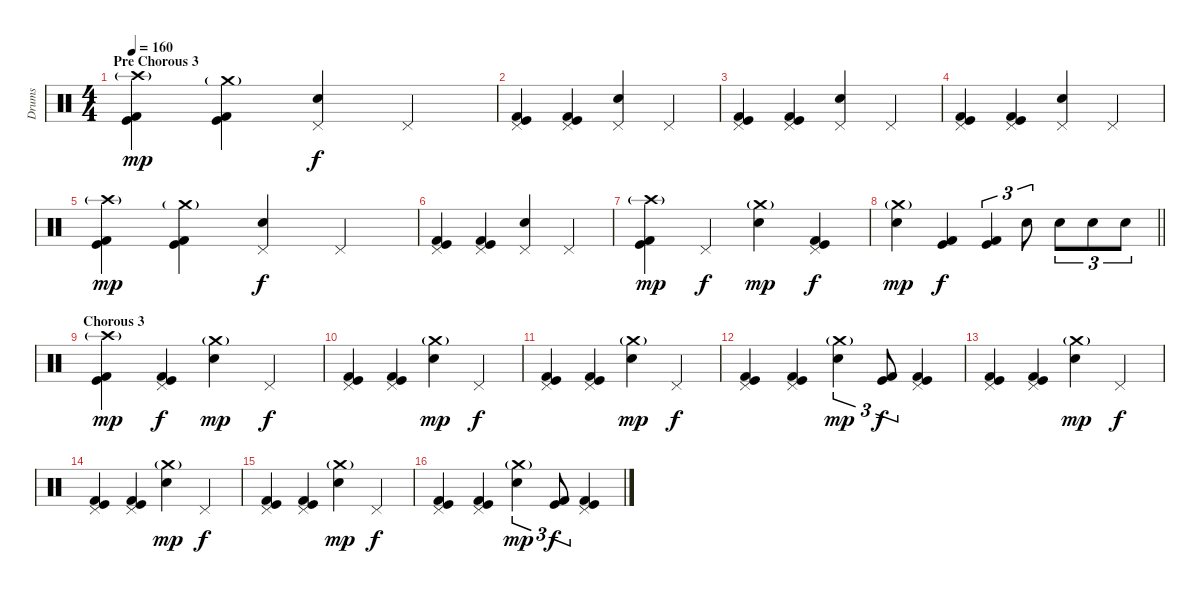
\track ("Drums" "Drums") {instrument percussion}
\staff {score}
\articulation defaults
\ts (4 4)
\section ("" "Pre Chorous 3")
\tempo 160
\clef neutral
\ks c
("Crash high (hit)"{g} "Kick (hit)" "Kick (hit) 2").4{dy mp} ("Crash medium (hit)"{g} "Kick (hit)" "Kick (hit) 2").4 ("Pedal Hi-Hat (hit)" "Electric Snare (hit)").4{dy f} "Pedal Hi-Hat (hit)".4 |
("Pedal Hi-Hat (hit)" "Kick (hit)" "Kick (hit) 2").4 ("Pedal Hi-Hat (hit)" "Kick (hit)" "Kick (hit) 2").4 ("Pedal Hi-Hat (hit)" "Electric Snare (hit)").4 "Pedal Hi-Hat (hit)".4 |
("Pedal Hi-Hat (hit)" "Kick (hit)" "Kick (hit) 2").4 ("Pedal Hi-Hat (hit)" "Kick (hit)" "Kick (hit) 2").4 ("Pedal Hi-Hat (hit)" "Electric Snare (hit)").4 "Pedal Hi-Hat (hit)".4 |
("Pedal Hi-Hat (hit)" "Kick (hit)" "Kick (hit) 2").4 ("Pedal Hi-Hat (hit)" "Kick (hit)" "Kick (hit) 2").4 ("Pedal Hi-Hat (hit)" "Electric Snare (hit)").4 "Pedal Hi-Hat (hit)".4 |
("Crash high (hit)"{g} "Kick (hit)" "Kick (hit) 2").4{dy mp} ("Crash medium (hit)"{g} "Kick (hit)" "Kick (hit) 2").4 ("Pedal Hi-Hat (hit)" "Electric Snare (hit)").4{dy f} "Pedal Hi-Hat (hit)".4 |
("Pedal Hi-Hat (hit)" "Kick (hit)" "Kick (hit) 2").4 ("Pedal Hi-Hat (hit)" "Kick (hit)" "Kick (hit) 2").4 ("Pedal Hi-Hat (hit)" "Electric Snare (hit)").4 "Pedal Hi-Hat (hit)".4 |
("Crash high (hit)"{g} "Kick (hit)" "Kick (hit) 2").4{dy mp} "Pedal Hi-Hat (hit)".4{dy f} ("Crash medium (hit)"{g} "Electric Snare (hit)").4{dy mp} ("Pedal Hi-Hat (hit)" "Kick (hit)" "Kick (hit) 2").4{dy f} |
\barLineRight lightlight
("Crash medium (hit)"{g} "Electric Snare (hit)").4{dy mp} ("Kick (hit)" "Kick (hit) 2").4{dy f} ("Kick (hit)" "Kick (hit) 2").4{tu (3 2)} "Electric Snare (hit)".8{tu (3 2)} "Electric Snare (hit)".8{tu (3 2)} "Electric Snare (hit)".8{tu (3 2)} "Electric Snare (hit)".8{tu (3 2)} |
\section ("" "Chorous 3")
("Crash high (hit)"{g} "Kick (hit)" "Kick (hit) 2").4{dy mp} ("Pedal Hi-Hat (hit)" "Kick (hit)" "Kick (hit) 2").4{dy f} ("Crash medium (hit)"{g} "Electric Snare (hit)").4{dy mp} "Pedal Hi-Hat (hit)".4{dy f} |
("Pedal Hi-Hat (hit)" "Kick (hit)" "Kick (hit) 2").4 ("Pedal Hi-Hat (hit)" "Kick (hit)" "Kick (hit) 2").4 ("Crash medium (hit)"{g} "Electric Snare (hit)").4{dy mp} "Pedal Hi-Hat (hit)".4{dy f} |
("Pedal Hi-Hat (hit)" "Kick (hit)" "Kick (hit) 2").4 ("Pedal Hi-Hat (hit)" "Kick (hit)" "Kick (hit) 2").4 ("Crash medium (hit)"{g} "Electric Snare (hit)").4{dy mp} "Pedal Hi-Hat (hit)".4{dy f} |
("Pedal Hi-Hat (hit)" "Kick (hit)" "Kick (hit) 2").4 ("Pedal Hi-Hat (hit)" "Kick (hit)" "Kick (hit) 2").4 ("Crash medium (hit)"{g} "Electric Snare (hit)").4{tu (3 2) dy mp} ("Kick (hit)" "Kick (hit) 2").8{tu (3 2) dy f} ("Pedal Hi-Hat (hit)" "Kick (hit)" "Kick (hit) 2").4 |
("Pedal Hi-Hat (hit)" "Kick (hit)" "Kick (hit) 2").4 ("Pedal Hi-Hat (hit)" "Kick (hit)" "Kick (hit) 2").4 ("Crash medium (hit)"{g} "Electric Snare (hit)").4{dy mp} "Pedal Hi-Hat (hit)".4{dy f} |
("Pedal Hi-Hat (hit)" "Kick (hit)" "Kick (hit) 2").4 ("Pedal Hi-Hat (hit)" "Kick (hit)" "Kick (hit) 2").4 ("Crash medium (hit)"{g} "Electric Snare (hit)").4{dy mp} "Pedal Hi-Hat (hit)".4{dy f} |
("Pedal Hi-Hat (hit)" "Kick (hit)" "Kick (hit) 2").4 ("Pedal Hi-Hat (hit)" "Kick (hit)" "Kick (hit) 2").4 ("Crash medium (hit)"{g} "Electric Snare (hit)").4{dy mp} "Pedal Hi-Hat (hit)".4{dy f} |
("Pedal Hi-Hat (hit)" "Kick (hit)" "Kick (hit) 2").4 ("Pedal Hi-Hat (hit)" "Kick (hit)" "Kick (hit) 2").4 ("Crash medium (hit)"{g} "Electric Snare (hit)").4{tu (3 2) dy mp} ("Kick (hit)" "Kick (hit) 2").8{tu (3 2) dy f} ("Pedal Hi-Hat (hit)" "Kick (hit)" "Kick (hit) 2").4
